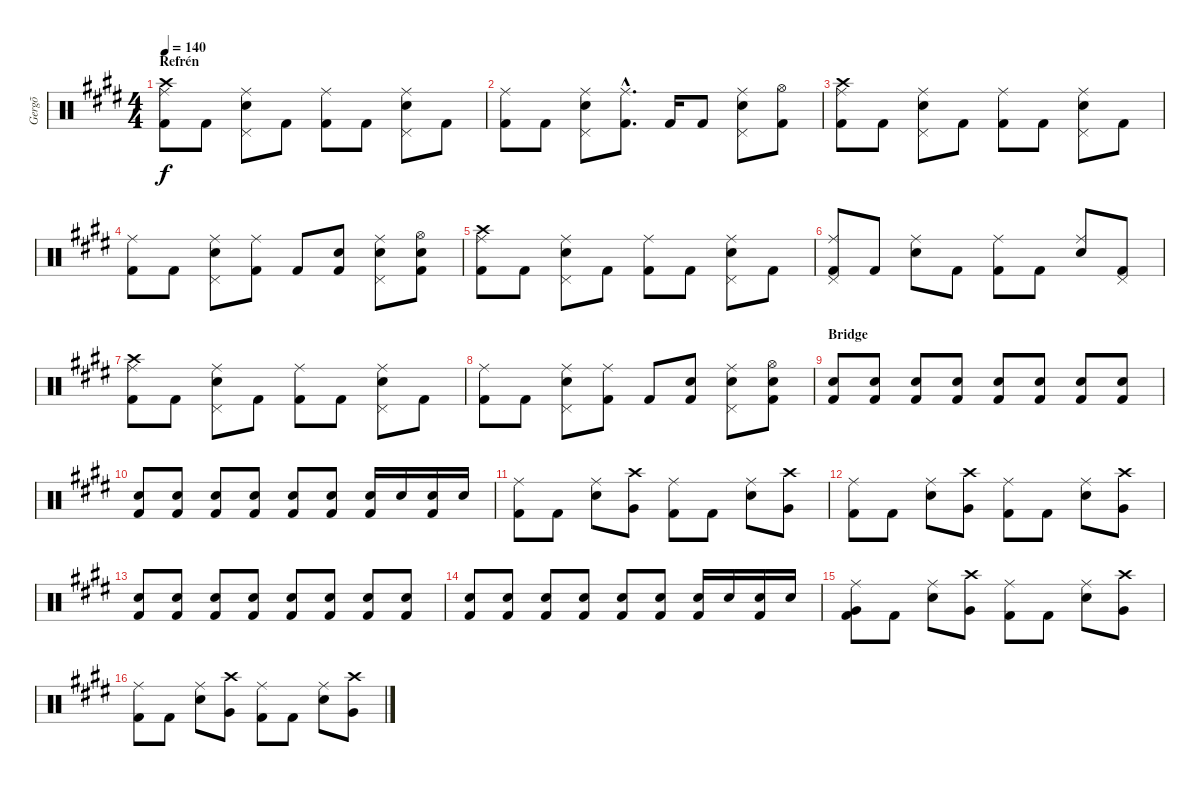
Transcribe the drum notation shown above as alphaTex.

\track ("Gergõ" "Gergõ") {instrument percussion}
\staff {score}
\articulation defaults
\ts (4 4)
\section ("" "Refrén")
\tempo 140
\clef neutral
\ks e
("Crash high (hit)" "Ride (middle)" "Kick (hit) 2").8{dy f} "Kick (hit) 2".8 ("Ride (middle)" "Pedal Hi-Hat (hit)" "Electric Snare (hit)").8 "Kick (hit) 2".8 ("Ride (middle)" "Kick (hit) 2").8 "Kick (hit) 2".8 ("Ride (middle)" "Pedal Hi-Hat (hit)" "Electric Snare (hit)").8 "Kick (hit) 2".8 |
("Ride (middle)" "Kick (hit) 2").8 "Kick (hit) 2".8 ("Ride (middle)" "Pedal Hi-Hat (hit)" "Electric Snare (hit)").8 ("Ride (middle)"{hac} "Kick (hit) 2"{hac}).8{d} "Kick (hit) 2".16 "Kick (hit) 2".8 ("Ride (middle)" "Pedal Hi-Hat (hit)" "Electric Snare (hit)").8 ("Hi-Hat (open)" "Kick (hit) 2").8 |
("Ride (middle)" "Crash high (hit)" "Kick (hit) 2").8 "Kick (hit) 2".8 ("Ride (middle)" "Pedal Hi-Hat (hit)" "Electric Snare (hit)").8 "Kick (hit) 2".8 ("Ride (middle)" "Kick (hit) 2").8 "Kick (hit) 2".8 ("Ride (middle)" "Pedal Hi-Hat (hit)" "Electric Snare (hit)").8 "Kick (hit) 2".8 |
("Ride (middle)" "Kick (hit) 2").8 "Kick (hit) 2".8 ("Ride (middle)" "Pedal Hi-Hat (hit)" "Electric Snare (hit)").8 ("Ride (middle)" "Kick (hit) 2").8 "Kick (hit) 2".8 ("Electric Snare (hit)" "Kick (hit) 2").8 ("Ride (middle)" "Pedal Hi-Hat (hit)" "Electric Snare (hit)").8 ("Hi-Hat (open)" "Electric Snare (hit)" "Kick (hit) 2").8 |
("Ride (middle)" "Crash high (hit)" "Kick (hit) 2").8 "Kick (hit) 2".8 ("Ride (middle)" "Pedal Hi-Hat (hit)" "Electric Snare (hit)").8 "Kick (hit) 2".8 ("Ride (middle)" "Kick (hit) 2").8 "Kick (hit) 2".8 ("Ride (middle)" "Pedal Hi-Hat (hit)" "Electric Snare (hit)").8 "Kick (hit) 2".8 |
("Ride (middle)" "Pedal Hi-Hat (hit)" "Kick (hit) 2").8 "Kick (hit) 2".8 ("Ride (middle)" "Electric Snare (hit)").8 "Kick (hit) 2".8 ("Ride (middle)" "Kick (hit) 2").8 "Kick (hit) 2".8 ("Ride (middle)" "Electric Snare (hit)").8 ("Pedal Hi-Hat (hit)" "Kick (hit) 2").8 |
("Ride (middle)" "Crash high (hit)" "Kick (hit) 2").8 "Kick (hit) 2".8 ("Ride (middle)" "Pedal Hi-Hat (hit)" "Electric Snare (hit)").8 "Kick (hit) 2".8 ("Ride (middle)" "Kick (hit) 2").8 "Kick (hit) 2".8 ("Ride (middle)" "Pedal Hi-Hat (hit)" "Electric Snare (hit)").8 "Kick (hit) 2".8 |
("Ride (middle)" "Kick (hit) 2").8 "Kick (hit) 2".8 ("Ride (middle)" "Pedal Hi-Hat (hit)" "Electric Snare (hit)").8 ("Ride (middle)" "Kick (hit) 2").8 "Kick (hit) 2".8 ("Electric Snare (hit)" "Kick (hit) 2").8 ("Ride (middle)" "Pedal Hi-Hat (hit)" "Electric Snare (hit)").8 ("Hi-Hat (open)" "Electric Snare (hit)" "Kick (hit) 2").8 |
\section ("" "Bridge")
("Electric Snare (hit)" "Kick (hit) 2").8 ("Electric Snare (hit)" "Kick (hit) 2").8 ("Electric Snare (hit)" "Kick (hit) 2").8 ("Electric Snare (hit)" "Kick (hit) 2").8 ("Electric Snare (hit)" "Kick (hit) 2").8 ("Electric Snare (hit)" "Kick (hit) 2").8 ("Electric Snare (hit)" "Kick (hit) 2").8 ("Electric Snare (hit)" "Kick (hit) 2").8 |
("Electric Snare (hit)" "Kick (hit) 2").8 ("Electric Snare (hit)" "Kick (hit) 2").8 ("Electric Snare (hit)" "Kick (hit) 2").8 ("Electric Snare (hit)" "Kick (hit) 2").8 ("Electric Snare (hit)" "Kick (hit) 2").8 ("Electric Snare (hit)" "Kick (hit) 2").8 ("Electric Snare (hit)" "Kick (hit) 2").16 "Electric Snare (hit)".16 ("Electric Snare (hit)" "Kick (hit) 2").16 "Electric Snare (hit)".16 |
("Ride (middle)" "Kick (hit) 2").8 "Kick (hit) 2".8 ("Ride (middle)" "Electric Snare (hit)").8 ("Crash high (hit)" "Very Low Tom (hit)").8 ("Ride (middle)" "Kick (hit) 2").8 "Kick (hit) 2".8 ("Ride (middle)" "Electric Snare (hit)").8 ("Crash high (hit)" "Very Low Tom (hit)").8 |
("Ride (middle)" "Kick (hit) 2").8 "Kick (hit) 2".8 ("Ride (middle)" "Electric Snare (hit)").8 ("Crash high (hit)" "Very Low Tom (hit)").8 ("Ride (middle)" "Kick (hit) 2").8 "Kick (hit) 2".8 ("Ride (middle)" "Electric Snare (hit)").8 ("Crash high (hit)" "Very Low Tom (hit)").8 |
("Electric Snare (hit)" "Kick (hit) 2").8 ("Electric Snare (hit)" "Kick (hit) 2").8 ("Electric Snare (hit)" "Kick (hit) 2").8 ("Electric Snare (hit)" "Kick (hit) 2").8 ("Electric Snare (hit)" "Kick (hit) 2").8 ("Electric Snare (hit)" "Kick (hit) 2").8 ("Electric Snare (hit)" "Kick (hit) 2").8 ("Electric Snare (hit)" "Kick (hit) 2").8 |
("Electric Snare (hit)" "Kick (hit) 2").8 ("Electric Snare (hit)" "Kick (hit) 2").8 ("Electric Snare (hit)" "Kick (hit) 2").8 ("Electric Snare (hit)" "Kick (hit) 2").8 ("Electric Snare (hit)" "Kick (hit) 2").8 ("Electric Snare (hit)" "Kick (hit) 2").8 ("Electric Snare (hit)" "Kick (hit) 2").16 "Electric Snare (hit)".16 ("Electric Snare (hit)" "Kick (hit) 2").16 "Electric Snare (hit)".16 |
("Ride (middle)" "Very Low Tom (hit)" "Kick (hit) 2").8 "Kick (hit) 2".8 ("Ride (middle)" "Electric Snare (hit)").8 ("Crash high (hit)" "Very Low Tom (hit)").8 ("Ride (middle)" "Kick (hit) 2").8 "Kick (hit) 2".8 ("Ride (middle)" "Electric Snare (hit)").8 ("Crash high (hit)" "Very Low Tom (hit)").8 |
("Ride (middle)" "Kick (hit) 2").8 "Kick (hit) 2".8 ("Ride (middle)" "Electric Snare (hit)").8 ("Crash high (hit)" "Very Low Tom (hit)").8 ("Ride (middle)" "Kick (hit) 2").8 "Kick (hit) 2".8 ("Ride (middle)" "Electric Snare (hit)").8 ("Crash high (hit)" "Very Low Tom (hit)").8
